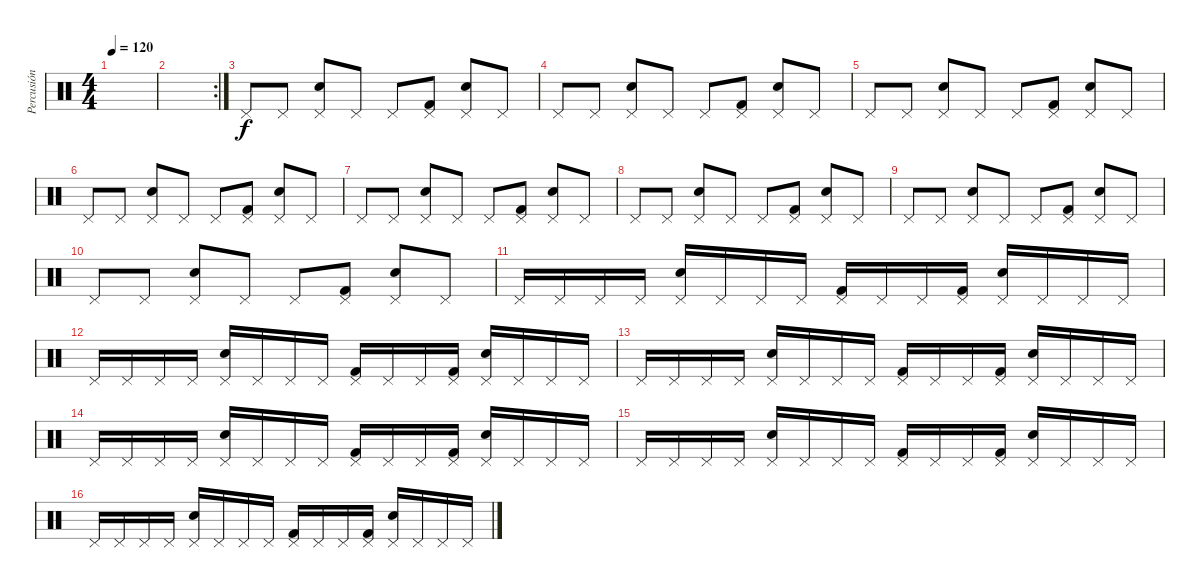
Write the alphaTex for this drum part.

\track ("Percusión" "Percusión") {instrument percussion}
\staff {score}
\articulation defaults
\ts (4 4)
\tempo 120
\clef neutral
\ks c
|
\rc 2
|
"Pedal Hi-Hat (hit)".8 "Pedal Hi-Hat (hit)".8 ("Pedal Hi-Hat (hit)" "Snare (hit) 2").8 "Pedal Hi-Hat (hit)".8 "Pedal Hi-Hat (hit)".8 ("Pedal Hi-Hat (hit)" "Kick (hit) 2").8 ("Pedal Hi-Hat (hit)" "Snare (hit) 2").8 "Pedal Hi-Hat (hit)".8 |
"Pedal Hi-Hat (hit)".8 "Pedal Hi-Hat (hit)".8 ("Pedal Hi-Hat (hit)" "Snare (hit) 2").8 "Pedal Hi-Hat (hit)".8 "Pedal Hi-Hat (hit)".8 ("Pedal Hi-Hat (hit)" "Kick (hit) 2").8 ("Pedal Hi-Hat (hit)" "Snare (hit) 2").8 "Pedal Hi-Hat (hit)".8 |
"Pedal Hi-Hat (hit)".8 "Pedal Hi-Hat (hit)".8 ("Pedal Hi-Hat (hit)" "Snare (hit) 2").8 "Pedal Hi-Hat (hit)".8 "Pedal Hi-Hat (hit)".8 ("Pedal Hi-Hat (hit)" "Kick (hit) 2").8 ("Pedal Hi-Hat (hit)" "Snare (hit) 2").8 "Pedal Hi-Hat (hit)".8 |
"Pedal Hi-Hat (hit)".8 "Pedal Hi-Hat (hit)".8 ("Pedal Hi-Hat (hit)" "Snare (hit) 2").8 "Pedal Hi-Hat (hit)".8 "Pedal Hi-Hat (hit)".8 ("Pedal Hi-Hat (hit)" "Kick (hit) 2").8 ("Pedal Hi-Hat (hit)" "Snare (hit) 2").8 "Pedal Hi-Hat (hit)".8 |
"Pedal Hi-Hat (hit)".8 "Pedal Hi-Hat (hit)".8 ("Pedal Hi-Hat (hit)" "Snare (hit) 2").8 "Pedal Hi-Hat (hit)".8 "Pedal Hi-Hat (hit)".8 ("Pedal Hi-Hat (hit)" "Kick (hit) 2").8 ("Pedal Hi-Hat (hit)" "Snare (hit) 2").8 "Pedal Hi-Hat (hit)".8 |
"Pedal Hi-Hat (hit)".8 "Pedal Hi-Hat (hit)".8 ("Pedal Hi-Hat (hit)" "Snare (hit) 2").8 "Pedal Hi-Hat (hit)".8 "Pedal Hi-Hat (hit)".8 ("Pedal Hi-Hat (hit)" "Kick (hit) 2").8 ("Pedal Hi-Hat (hit)" "Snare (hit) 2").8 "Pedal Hi-Hat (hit)".8 |
"Pedal Hi-Hat (hit)".8 "Pedal Hi-Hat (hit)".8 ("Pedal Hi-Hat (hit)" "Snare (hit) 2").8 "Pedal Hi-Hat (hit)".8 "Pedal Hi-Hat (hit)".8 ("Pedal Hi-Hat (hit)" "Kick (hit) 2").8 ("Pedal Hi-Hat (hit)" "Snare (hit) 2").8 "Pedal Hi-Hat (hit)".8 |
"Pedal Hi-Hat (hit)".8 "Pedal Hi-Hat (hit)".8 ("Pedal Hi-Hat (hit)" "Snare (hit) 2").8 "Pedal Hi-Hat (hit)".8 "Pedal Hi-Hat (hit)".8 ("Pedal Hi-Hat (hit)" "Kick (hit) 2").8 ("Pedal Hi-Hat (hit)" "Snare (hit) 2").8 "Pedal Hi-Hat (hit)".8 |
"Pedal Hi-Hat (hit)".16 "Pedal Hi-Hat (hit)".16 "Pedal Hi-Hat (hit)".16 "Pedal Hi-Hat (hit)".16 ("Pedal Hi-Hat (hit)" "Snare (hit) 2").16 "Pedal Hi-Hat (hit)".16 "Pedal Hi-Hat (hit)".16 "Pedal Hi-Hat (hit)".16 ("Pedal Hi-Hat (hit)" "Kick (hit) 2").16 "Pedal Hi-Hat (hit)".16 "Pedal Hi-Hat (hit)".16 ("Pedal Hi-Hat (hit)" "Kick (hit) 2").16 ("Pedal Hi-Hat (hit)" "Snare (hit) 2").16 "Pedal Hi-Hat (hit)".16 "Pedal Hi-Hat (hit)".16 "Pedal Hi-Hat (hit)".16 |
"Pedal Hi-Hat (hit)".16 "Pedal Hi-Hat (hit)".16 "Pedal Hi-Hat (hit)".16 "Pedal Hi-Hat (hit)".16 ("Pedal Hi-Hat (hit)" "Snare (hit) 2").16 "Pedal Hi-Hat (hit)".16 "Pedal Hi-Hat (hit)".16 "Pedal Hi-Hat (hit)".16 ("Pedal Hi-Hat (hit)" "Kick (hit) 2").16 "Pedal Hi-Hat (hit)".16 "Pedal Hi-Hat (hit)".16 ("Pedal Hi-Hat (hit)" "Kick (hit) 2").16 ("Pedal Hi-Hat (hit)" "Snare (hit) 2").16 "Pedal Hi-Hat (hit)".16 "Pedal Hi-Hat (hit)".16 "Pedal Hi-Hat (hit)".16 |
"Pedal Hi-Hat (hit)".16 "Pedal Hi-Hat (hit)".16 "Pedal Hi-Hat (hit)".16 "Pedal Hi-Hat (hit)".16 ("Pedal Hi-Hat (hit)" "Snare (hit) 2").16 "Pedal Hi-Hat (hit)".16 "Pedal Hi-Hat (hit)".16 "Pedal Hi-Hat (hit)".16 ("Pedal Hi-Hat (hit)" "Kick (hit) 2").16 "Pedal Hi-Hat (hit)".16 "Pedal Hi-Hat (hit)".16 ("Pedal Hi-Hat (hit)" "Kick (hit) 2").16 ("Pedal Hi-Hat (hit)" "Snare (hit) 2").16 "Pedal Hi-Hat (hit)".16 "Pedal Hi-Hat (hit)".16 "Pedal Hi-Hat (hit)".16 |
"Pedal Hi-Hat (hit)".16 "Pedal Hi-Hat (hit)".16 "Pedal Hi-Hat (hit)".16 "Pedal Hi-Hat (hit)".16 ("Pedal Hi-Hat (hit)" "Snare (hit) 2").16 "Pedal Hi-Hat (hit)".16 "Pedal Hi-Hat (hit)".16 "Pedal Hi-Hat (hit)".16 ("Pedal Hi-Hat (hit)" "Kick (hit) 2").16 "Pedal Hi-Hat (hit)".16 "Pedal Hi-Hat (hit)".16 ("Pedal Hi-Hat (hit)" "Kick (hit) 2").16 ("Pedal Hi-Hat (hit)" "Snare (hit) 2").16 "Pedal Hi-Hat (hit)".16 "Pedal Hi-Hat (hit)".16 "Pedal Hi-Hat (hit)".16 |
"Pedal Hi-Hat (hit)".16 "Pedal Hi-Hat (hit)".16 "Pedal Hi-Hat (hit)".16 "Pedal Hi-Hat (hit)".16 ("Pedal Hi-Hat (hit)" "Snare (hit) 2").16 "Pedal Hi-Hat (hit)".16 "Pedal Hi-Hat (hit)".16 "Pedal Hi-Hat (hit)".16 ("Pedal Hi-Hat (hit)" "Kick (hit) 2").16 "Pedal Hi-Hat (hit)".16 "Pedal Hi-Hat (hit)".16 ("Pedal Hi-Hat (hit)" "Kick (hit) 2").16 ("Pedal Hi-Hat (hit)" "Snare (hit) 2").16 "Pedal Hi-Hat (hit)".16 "Pedal Hi-Hat (hit)".16 "Pedal Hi-Hat (hit)".16 |
"Pedal Hi-Hat (hit)".16 "Pedal Hi-Hat (hit)".16 "Pedal Hi-Hat (hit)".16 "Pedal Hi-Hat (hit)".16 ("Pedal Hi-Hat (hit)" "Snare (hit) 2").16 "Pedal Hi-Hat (hit)".16 "Pedal Hi-Hat (hit)".16 "Pedal Hi-Hat (hit)".16 ("Pedal Hi-Hat (hit)" "Kick (hit) 2").16 "Pedal Hi-Hat (hit)".16 "Pedal Hi-Hat (hit)".16 ("Pedal Hi-Hat (hit)" "Kick (hit) 2").16 ("Pedal Hi-Hat (hit)" "Snare (hit) 2").16 "Pedal Hi-Hat (hit)".16 "Pedal Hi-Hat (hit)".16 "Pedal Hi-Hat (hit)".16
